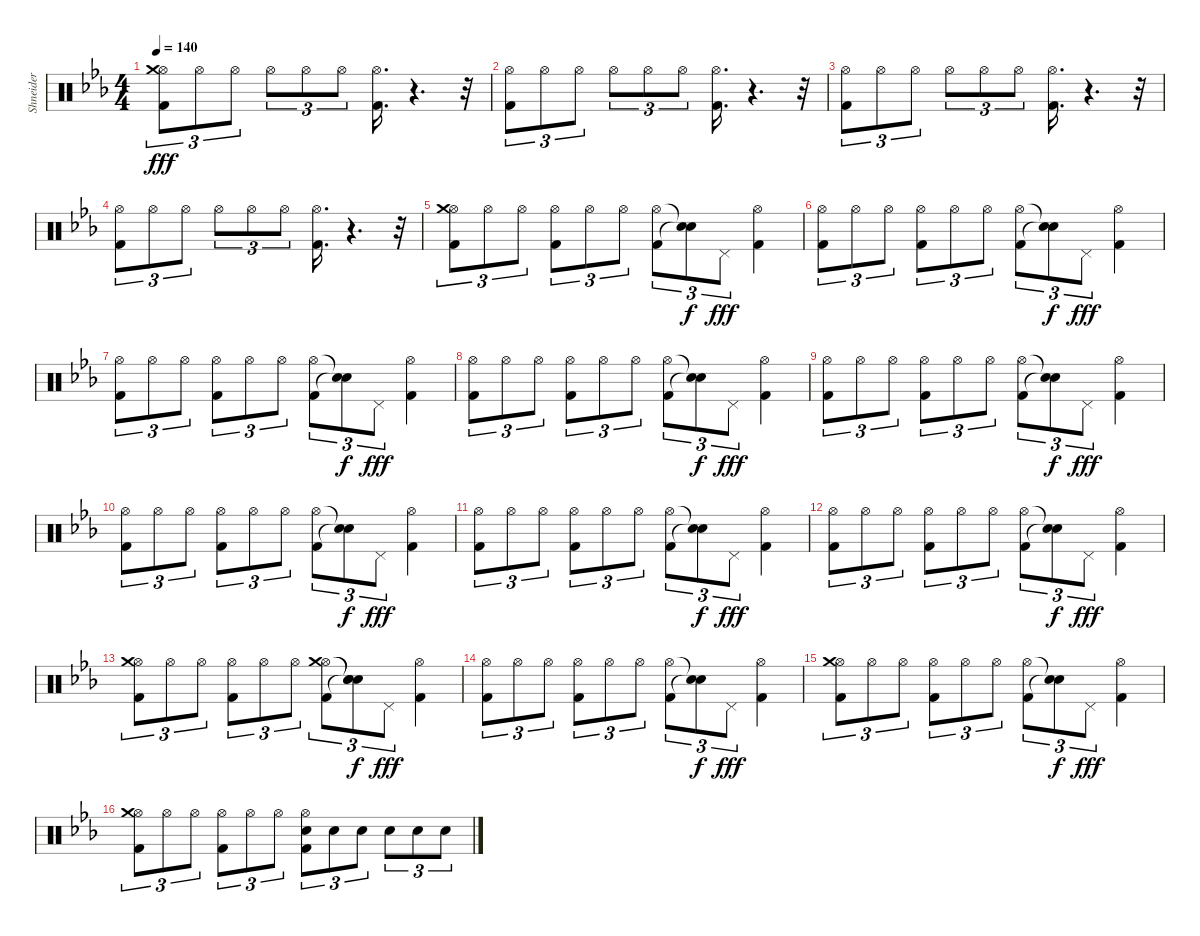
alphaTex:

\track ("Shneider" "Shneider") {instrument percussion}
\staff {score}
\articulation defaults
\ts (4 4)
\tempo 140
\clef neutral
\ks eb
("Hi-Hat (open)" "Crash medium (hit)" "Kick (hit) 2").8{tu (3 2) dy fff} "Hi-Hat (open)".8{tu (3 2)} "Hi-Hat (open)".8{tu (3 2)} "Hi-Hat (open)".8{tu (3 2)} "Hi-Hat (open)".8{tu (3 2)} "Hi-Hat (open)".8{tu (3 2)} ("Hi-Hat (open)" "Kick (hit) 2").16{d} r.4{d} r.32 |
("Hi-Hat (open)" "Kick (hit) 2").8{tu (3 2)} "Hi-Hat (open)".8{tu (3 2)} "Hi-Hat (open)".8{tu (3 2)} "Hi-Hat (open)".8{tu (3 2)} "Hi-Hat (open)".8{tu (3 2)} "Hi-Hat (open)".8{tu (3 2)} ("Hi-Hat (open)" "Kick (hit) 2").16{d} r.4{d} r.32 |
("Hi-Hat (open)" "Kick (hit) 2").8{tu (3 2)} "Hi-Hat (open)".8{tu (3 2)} "Hi-Hat (open)".8{tu (3 2)} "Hi-Hat (open)".8{tu (3 2)} "Hi-Hat (open)".8{tu (3 2)} "Hi-Hat (open)".8{tu (3 2)} ("Hi-Hat (open)" "Kick (hit) 2").16{d} r.4{d} r.32 |
("Hi-Hat (open)" "Kick (hit) 2").8{tu (3 2)} "Hi-Hat (open)".8{tu (3 2)} "Hi-Hat (open)".8{tu (3 2)} "Hi-Hat (open)".8{tu (3 2)} "Hi-Hat (open)".8{tu (3 2)} "Hi-Hat (open)".8{tu (3 2)} ("Hi-Hat (open)" "Kick (hit) 2").16{d} r.4{d} r.32 |
("Hi-Hat (open)" "Crash medium (hit)" "Kick (hit) 2").8{tu (3 2)} "Hi-Hat (open)".8{tu (3 2)} "Hi-Hat (open)".8{tu (3 2)} ("Hi-Hat (open)" "Kick (hit) 2").8{tu (3 2)} "Hi-Hat (open)".8{tu (3 2)} "Hi-Hat (open)".8{tu (3 2)} ("Hi-Hat (open)" "Kick (hit) 2").8{tu (3 2)} ("Snare (hit)"{t} "Snare (hit)"{t}).8{tu (3 2) dy f} "Pedal Hi-Hat (hit)".8{tu (3 2) dy fff} ("Hi-Hat (open)" "Kick (hit) 2").4 |
("Hi-Hat (open)" "Kick (hit) 2").8{tu (3 2)} "Hi-Hat (open)".8{tu (3 2)} "Hi-Hat (open)".8{tu (3 2)} ("Hi-Hat (open)" "Kick (hit) 2").8{tu (3 2)} "Hi-Hat (open)".8{tu (3 2)} "Hi-Hat (open)".8{tu (3 2)} ("Hi-Hat (open)" "Kick (hit) 2").8{tu (3 2)} ("Snare (hit)"{t} "Snare (hit)"{t}).8{tu (3 2) dy f} "Pedal Hi-Hat (hit)".8{tu (3 2) dy fff} ("Hi-Hat (open)" "Kick (hit) 2").4 |
("Hi-Hat (open)" "Kick (hit) 2").8{tu (3 2)} "Hi-Hat (open)".8{tu (3 2)} "Hi-Hat (open)".8{tu (3 2)} ("Hi-Hat (open)" "Kick (hit) 2").8{tu (3 2)} "Hi-Hat (open)".8{tu (3 2)} "Hi-Hat (open)".8{tu (3 2)} ("Hi-Hat (open)" "Kick (hit) 2").8{tu (3 2)} ("Snare (hit)"{t} "Snare (hit)"{t}).8{tu (3 2) dy f} "Pedal Hi-Hat (hit)".8{tu (3 2) dy fff} ("Hi-Hat (open)" "Kick (hit) 2").4 |
("Hi-Hat (open)" "Kick (hit) 2").8{tu (3 2)} "Hi-Hat (open)".8{tu (3 2)} "Hi-Hat (open)".8{tu (3 2)} ("Hi-Hat (open)" "Kick (hit) 2").8{tu (3 2)} "Hi-Hat (open)".8{tu (3 2)} "Hi-Hat (open)".8{tu (3 2)} ("Hi-Hat (open)" "Kick (hit) 2").8{tu (3 2)} ("Snare (hit)"{t} "Snare (hit)"{t}).8{tu (3 2) dy f} "Pedal Hi-Hat (hit)".8{tu (3 2) dy fff} ("Hi-Hat (open)" "Kick (hit) 2").4 |
("Hi-Hat (open)" "Kick (hit) 2").8{tu (3 2)} "Hi-Hat (open)".8{tu (3 2)} "Hi-Hat (open)".8{tu (3 2)} ("Hi-Hat (open)" "Kick (hit) 2").8{tu (3 2)} "Hi-Hat (open)".8{tu (3 2)} "Hi-Hat (open)".8{tu (3 2)} ("Hi-Hat (open)" "Kick (hit) 2").8{tu (3 2)} ("Snare (hit)"{t} "Snare (hit)"{t}).8{tu (3 2) dy f} "Pedal Hi-Hat (hit)".8{tu (3 2) dy fff} ("Hi-Hat (open)" "Kick (hit) 2").4 |
("Hi-Hat (open)" "Kick (hit) 2").8{tu (3 2)} "Hi-Hat (open)".8{tu (3 2)} "Hi-Hat (open)".8{tu (3 2)} ("Hi-Hat (open)" "Kick (hit) 2").8{tu (3 2)} "Hi-Hat (open)".8{tu (3 2)} "Hi-Hat (open)".8{tu (3 2)} ("Hi-Hat (open)" "Kick (hit) 2").8{tu (3 2)} ("Snare (hit)"{t} "Snare (hit)"{t}).8{tu (3 2) dy f} "Pedal Hi-Hat (hit)".8{tu (3 2) dy fff} ("Hi-Hat (open)" "Kick (hit) 2").4 |
("Hi-Hat (open)" "Kick (hit) 2").8{tu (3 2)} "Hi-Hat (open)".8{tu (3 2)} "Hi-Hat (open)".8{tu (3 2)} ("Hi-Hat (open)" "Kick (hit) 2").8{tu (3 2)} "Hi-Hat (open)".8{tu (3 2)} "Hi-Hat (open)".8{tu (3 2)} ("Hi-Hat (open)" "Kick (hit) 2").8{tu (3 2)} ("Snare (hit)"{t} "Snare (hit)"{t}).8{tu (3 2) dy f} "Pedal Hi-Hat (hit)".8{tu (3 2) dy fff} ("Hi-Hat (open)" "Kick (hit) 2").4 |
("Hi-Hat (open)" "Kick (hit) 2").8{tu (3 2)} "Hi-Hat (open)".8{tu (3 2)} "Hi-Hat (open)".8{tu (3 2)} ("Hi-Hat (open)" "Kick (hit) 2").8{tu (3 2)} "Hi-Hat (open)".8{tu (3 2)} "Hi-Hat (open)".8{tu (3 2)} ("Hi-Hat (open)" "Kick (hit) 2").8{tu (3 2)} ("Snare (hit)"{t} "Snare (hit)"{t}).8{tu (3 2) dy f} "Pedal Hi-Hat (hit)".8{tu (3 2) dy fff} ("Hi-Hat (open)" "Kick (hit) 2").4 |
("Hi-Hat (open)" "Crash medium (hit)" "Kick (hit) 2").8{tu (3 2)} "Hi-Hat (open)".8{tu (3 2)} "Hi-Hat (open)".8{tu (3 2)} ("Hi-Hat (open)" "Kick (hit) 2").8{tu (3 2)} "Hi-Hat (open)".8{tu (3 2)} "Hi-Hat (open)".8{tu (3 2)} ("Hi-Hat (open)" "Crash medium (hit)" "Kick (hit) 2").8{tu (3 2)} ("Snare (hit)"{t} "Snare (hit)"{t} "Snare (hit)"{t}).8{tu (3 2) dy f} "Pedal Hi-Hat (hit)".8{tu (3 2) dy fff} ("Hi-Hat (open)" "Kick (hit) 2").4 |
("Hi-Hat (open)" "Kick (hit) 2").8{tu (3 2)} "Hi-Hat (open)".8{tu (3 2)} "Hi-Hat (open)".8{tu (3 2)} ("Hi-Hat (open)" "Kick (hit) 2").8{tu (3 2)} "Hi-Hat (open)".8{tu (3 2)} "Hi-Hat (open)".8{tu (3 2)} ("Hi-Hat (open)" "Kick (hit) 2").8{tu (3 2)} ("Snare (hit)"{t} "Snare (hit)"{t}).8{tu (3 2) dy f} "Pedal Hi-Hat (hit)".8{tu (3 2) dy fff} ("Hi-Hat (open)" "Kick (hit) 2").4 |
("Hi-Hat (open)" "Crash medium (hit)" "Kick (hit) 2").8{tu (3 2)} "Hi-Hat (open)".8{tu (3 2)} "Hi-Hat (open)".8{tu (3 2)} ("Hi-Hat (open)" "Kick (hit) 2").8{tu (3 2)} "Hi-Hat (open)".8{tu (3 2)} "Hi-Hat (open)".8{tu (3 2)} ("Hi-Hat (open)" "Kick (hit) 2").8{tu (3 2)} ("Snare (hit)"{t} "Snare (hit)"{t}).8{tu (3 2) dy f} "Pedal Hi-Hat (hit)".8{tu (3 2) dy fff} ("Hi-Hat (open)" "Kick (hit) 2").4 |
("Hi-Hat (open)" "Crash medium (hit)" "Kick (hit) 2").8{tu (3 2)} "Hi-Hat (open)".8{tu (3 2)} "Hi-Hat (open)".8{tu (3 2)} ("Hi-Hat (open)" "Kick (hit) 2").8{tu (3 2)} "Hi-Hat (open)".8{tu (3 2)} "Hi-Hat (open)".8{tu (3 2)} ("Hi-Hat (open)" "Snare (hit) 2" "Kick (hit) 2").8{tu (3 2)} "Snare (hit) 2".8{tu (3 2)} "Snare (hit) 2".8{tu (3 2)} "Snare (hit) 2".8{tu (3 2)} "Snare (hit) 2".8{tu (3 2)} "Snare (hit) 2".8{tu (3 2)}
